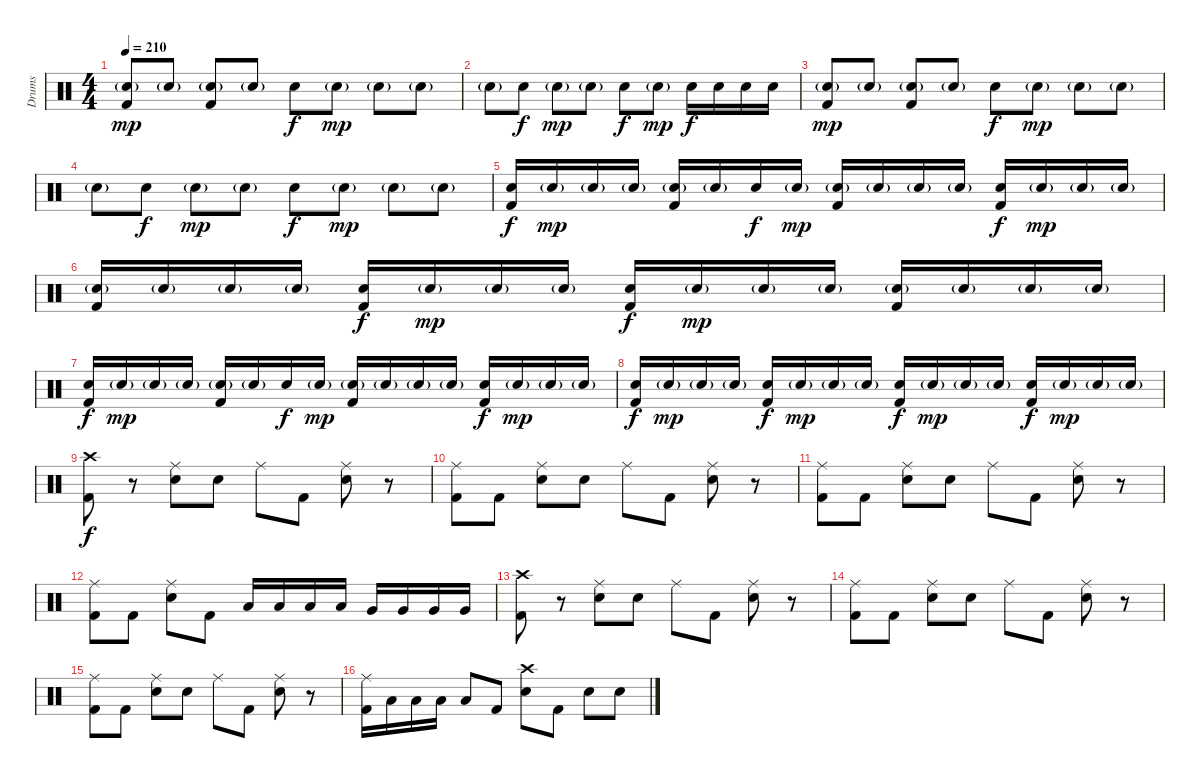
\track ("Drums" "Drums") {instrument percussion}
\staff {score}
\articulation defaults
\ts (4 4)
\tempo 210
\clef neutral
\ks c
("Electric Snare (hit)"{g} "Kick (hit) 2").8{dy mp} "Electric Snare (hit)"{g}.8 ("Electric Snare (hit)"{g} "Kick (hit) 2").8 "Electric Snare (hit)"{g}.8 "Electric Snare (hit)".8{dy f} "Electric Snare (hit)"{g}.8{dy mp} "Electric Snare (hit)"{g}.8 "Electric Snare (hit)"{g}.8 |
"Electric Snare (hit)"{g}.8 "Electric Snare (hit)".8{dy f} "Electric Snare (hit)"{g}.8{dy mp} "Electric Snare (hit)"{g}.8 "Electric Snare (hit)".8{dy f} "Electric Snare (hit)"{g}.8{dy mp} "Electric Snare (hit)".16{dy f} "Electric Snare (hit)".16 "Electric Snare (hit)".16 "Electric Snare (hit)".16 |
("Electric Snare (hit)"{g} "Kick (hit) 2").8{dy mp} "Electric Snare (hit)"{g}.8 ("Electric Snare (hit)"{g} "Kick (hit) 2").8 "Electric Snare (hit)"{g}.8 "Electric Snare (hit)".8{dy f} "Electric Snare (hit)"{g}.8{dy mp} "Electric Snare (hit)"{g}.8 "Electric Snare (hit)"{g}.8 |
"Electric Snare (hit)"{g}.8 "Electric Snare (hit)".8{dy f} "Electric Snare (hit)"{g}.8{dy mp} "Electric Snare (hit)"{g}.8 "Electric Snare (hit)".8{dy f} "Electric Snare (hit)"{g}.8{dy mp} "Electric Snare (hit)"{g}.8 "Electric Snare (hit)"{g}.8 |
("Electric Snare (hit)" "Kick (hit) 2").16{dy f volume 6} "Electric Snare (hit)"{g}.16{dy mp volume 8} "Electric Snare (hit)"{g}.16 "Electric Snare (hit)"{g}.16 ("Electric Snare (hit)"{g} "Kick (hit) 2").16 "Electric Snare (hit)"{g}.16 "Electric Snare (hit)".16{dy f} "Electric Snare (hit)"{g}.16{dy mp} ("Electric Snare (hit)"{g} "Kick (hit) 2").16 "Electric Snare (hit)"{g}.16 "Electric Snare (hit)"{g}.16 "Electric Snare (hit)"{g}.16 ("Electric Snare (hit)" "Kick (hit) 2").16{dy f} "Electric Snare (hit)"{g}.16{dy mp} "Electric Snare (hit)"{g}.16 "Electric Snare (hit)"{g}.16 |
("Electric Snare (hit)"{g} "Kick (hit) 2").16 "Electric Snare (hit)"{g}.16 "Electric Snare (hit)"{g}.16 "Electric Snare (hit)"{g}.16 ("Electric Snare (hit)" "Kick (hit) 2").16{dy f} "Electric Snare (hit)"{g}.16{dy mp} "Electric Snare (hit)"{g}.16 "Electric Snare (hit)"{g}.16 ("Electric Snare (hit)" "Kick (hit) 2").16{dy f} "Electric Snare (hit)"{g}.16{dy mp} "Electric Snare (hit)"{g}.16 "Electric Snare (hit)"{g}.16 ("Electric Snare (hit)"{g} "Kick (hit) 2").16 "Electric Snare (hit)"{g}.16 "Electric Snare (hit)"{g}.16 "Electric Snare (hit)"{g}.16 |
("Electric Snare (hit)" "Kick (hit) 2").16{dy f volume 9} "Electric Snare (hit)"{g}.16{dy mp} "Electric Snare (hit)"{g}.16 "Electric Snare (hit)"{g}.16 ("Electric Snare (hit)"{g} "Kick (hit) 2").16 "Electric Snare (hit)"{g}.16 "Electric Snare (hit)".16{dy f} "Electric Snare (hit)"{g}.16{dy mp} ("Electric Snare (hit)"{g} "Kick (hit) 2").16 "Electric Snare (hit)"{g}.16 "Electric Snare (hit)"{g}.16 "Electric Snare (hit)"{g}.16 ("Electric Snare (hit)" "Kick (hit) 2").16{dy f} "Electric Snare (hit)"{g}.16{dy mp} "Electric Snare (hit)"{g}.16 "Electric Snare (hit)"{g}.16 |
("Electric Snare (hit)" "Kick (hit) 2").16{dy f volume 13} "Electric Snare (hit)"{g}.16{dy mp} "Electric Snare (hit)"{g}.16 "Electric Snare (hit)"{g}.16 ("Electric Snare (hit)" "Kick (hit) 2").16{dy f} "Electric Snare (hit)"{g}.16{dy mp} "Electric Snare (hit)"{g}.16 "Electric Snare (hit)"{g}.16 ("Electric Snare (hit)" "Kick (hit) 2").16{dy f} "Electric Snare (hit)"{g}.16{dy mp} "Electric Snare (hit)"{g}.16 "Electric Snare (hit)"{g}.16 ("Electric Snare (hit)" "Kick (hit) 2").16{dy f} "Electric Snare (hit)"{g}.16{dy mp} "Electric Snare (hit)"{g}.16 "Electric Snare (hit)"{g}.16 |
("Crash high (hit)" "Kick (hit) 2").8{dy f} r.8 ("Ride (middle)" "Electric Snare (hit)").8 "Electric Snare (hit)".8 "Ride (middle)".8 "Kick (hit) 2".8 ("Ride (middle)" "Electric Snare (hit)").8 r.8 |
("Ride (middle)" "Kick (hit) 2").8 "Kick (hit) 2".8 ("Ride (middle)" "Electric Snare (hit)").8 "Electric Snare (hit)".8 "Ride (middle)".8 "Kick (hit) 2".8 ("Ride (middle)" "Electric Snare (hit)").8 r.8 |
("Ride (middle)" "Kick (hit) 2").8 "Kick (hit) 2".8 ("Ride (middle)" "Electric Snare (hit)").8 "Electric Snare (hit)".8 "Ride (middle)".8 "Kick (hit) 2".8 ("Ride (middle)" "Electric Snare (hit)").8 r.8 |
("Ride (middle)" "Kick (hit) 2").8 "Kick (hit) 2".8 ("Ride (middle)" "Electric Snare (hit)").8 "Kick (hit) 2".8 "Low Tom (hit)".16 "Low Tom (hit)".16 "Low Tom (hit)".16 "Low Tom (hit)".16 "Very Low Tom (hit)".16 "Very Low Tom (hit)".16 "Very Low Tom (hit)".16 "Very Low Tom (hit)".16 |
("Crash high (hit)" "Kick (hit) 2").8 r.8 ("Ride (middle)" "Electric Snare (hit)").8 "Electric Snare (hit)".8 "Ride (middle)".8 "Kick (hit) 2".8 ("Ride (middle)" "Electric Snare (hit)").8 r.8 |
("Ride (middle)" "Kick (hit) 2").8 "Kick (hit) 2".8 ("Ride (middle)" "Electric Snare (hit)").8 "Electric Snare (hit)".8 "Ride (middle)".8 "Kick (hit) 2".8 ("Ride (middle)" "Electric Snare (hit)").8 r.8 |
("Ride (middle)" "Kick (hit) 2").8 "Kick (hit) 2".8 ("Ride (middle)" "Electric Snare (hit)").8 "Electric Snare (hit)".8 "Ride (middle)".8 "Kick (hit) 2".8 ("Ride (middle)" "Electric Snare (hit)").8 r.8 |
("Ride (middle)" "Kick (hit) 2").16 "Low Tom (hit)".16 "Low Tom (hit)".16 "Low Tom (hit)".16 "Low Tom (hit)".8 "Kick (hit) 2".8 ("Crash high (hit)" "Electric Snare (hit)").8 "Kick (hit) 2".8 "Electric Snare (hit)".8 "Electric Snare (hit)".8
